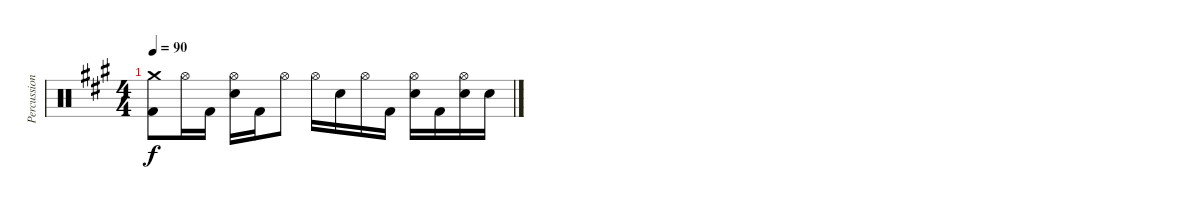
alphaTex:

\track ("Percussion" "Percussion") {instrument percussion}
\staff {score}
\articulation defaults
\ts (4 4)
\tempo 90
\clef neutral
\ks f#minor
("Crash medium (hit)" "Kick (hit) 2").8{dy f} "Hi-Hat (open)".16 "Kick (hit) 2".16 ("Hi-Hat (open)" "Electric Snare (hit)").16 "Kick (hit) 2".16 "Hi-Hat (open)".8 "Hi-Hat (open)".16 "Electric Snare (hit)".16 "Hi-Hat (open)".16 "Kick (hit) 2".16 ("Hi-Hat (open)" "Electric Snare (hit)").16 "Kick (hit) 2".16 ("Hi-Hat (open)" "Electric Snare (hit)").16 "Electric Snare (hit)".16
